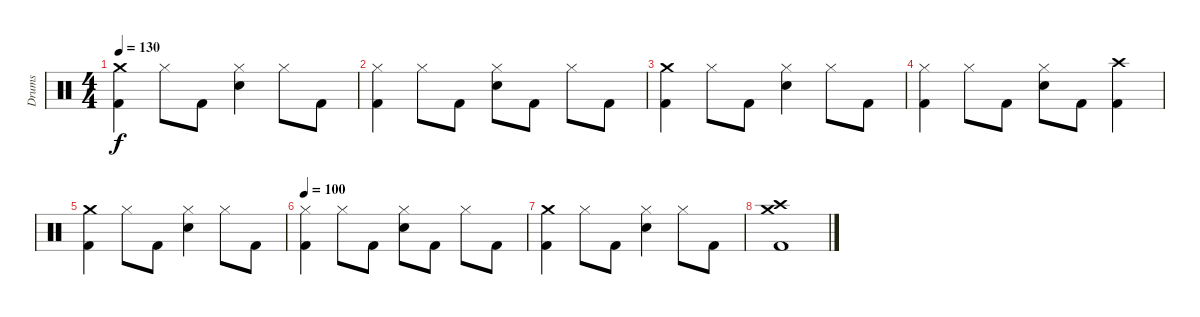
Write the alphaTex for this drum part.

\track ("Drums" "Drums") {instrument percussion}
\staff {score}
\articulation defaults
\ts (4 4)
\tempo 130
\clef neutral
\ks c
("Crash medium (hit)" "Kick (hit) 2").4{dy f} "Hi-Hat (closed)".8 "Kick (hit) 2".8 ("Hi-Hat (closed)" "Electric Snare (hit)").4 "Hi-Hat (closed)".8 "Kick (hit) 2".8 |
("Hi-Hat (closed)" "Kick (hit) 2").4 "Hi-Hat (closed)".8 "Kick (hit) 2".8 ("Hi-Hat (closed)" "Electric Snare (hit)").8 "Kick (hit) 2".8 "Hi-Hat (closed)".8 "Kick (hit) 2".8 |
("Crash medium (hit)" "Kick (hit) 2").4 "Hi-Hat (closed)".8 "Kick (hit) 2".8 ("Hi-Hat (closed)" "Electric Snare (hit)").4 "Hi-Hat (closed)".8 "Kick (hit) 2".8 |
("Hi-Hat (closed)" "Kick (hit) 2").4 "Hi-Hat (closed)".8 "Kick (hit) 2".8 ("Hi-Hat (closed)" "Electric Snare (hit)").8 "Kick (hit) 2".8 ("Crash high (hit)" "Kick (hit) 2").4 |
("Crash medium (hit)" "Kick (hit) 2").4 "Hi-Hat (closed)".8 "Kick (hit) 2".8 ("Hi-Hat (closed)" "Electric Snare (hit)").4 "Hi-Hat (closed)".8 "Kick (hit) 2".8 |
\tempo 100
("Hi-Hat (closed)" "Kick (hit) 2").4 "Hi-Hat (closed)".8 "Kick (hit) 2".8 ("Hi-Hat (closed)" "Electric Snare (hit)").8 "Kick (hit) 2".8 "Hi-Hat (closed)".8 "Kick (hit) 2".8 |
("Crash medium (hit)" "Kick (hit) 2").4 "Hi-Hat (closed)".8 "Kick (hit) 2".8 ("Hi-Hat (closed)" "Electric Snare (hit)").4 "Hi-Hat (closed)".8 "Kick (hit) 2".8 |
("Crash medium (hit)" "Crash high (hit)" "Kick (hit) 2").1
